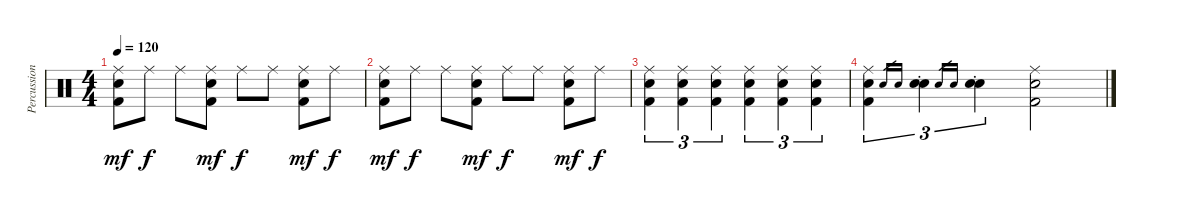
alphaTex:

\track ("Percussion" "Percussion") {instrument percussion}
\staff {score}
\articulation defaults
\ts (4 4)
\tempo 120
\clef neutral
\ks c
("Ride (middle)" "Kick (hit) 2" "Snare (hit) 2").8{dy mf} "Ride (middle)".8{dy f} "Ride (middle)".8 ("Ride (middle)" "Kick (hit) 2" "Snare (hit) 2").8{dy mf} "Ride (middle)".8{dy f} "Ride (middle)".8 ("Ride (middle)" "Kick (hit) 2" "Snare (hit) 2").8{dy mf} "Ride (middle)".8{dy f} |
("Ride (middle)" "Kick (hit) 2" "Snare (hit) 2").8{dy mf} "Ride (middle)".8{dy f} "Ride (middle)".8 ("Ride (middle)" "Kick (hit) 2" "Snare (hit) 2").8{dy mf} "Ride (middle)".8{dy f} "Ride (middle)".8 ("Ride (middle)" "Kick (hit) 2" "Snare (hit) 2").8{dy mf} "Ride (middle)".8{dy f} |
("Ride (middle)" "Snare (hit) 2" "Kick (hit) 2").4{tu (3 2)} ("Ride (middle)" "Snare (hit) 2" "Kick (hit) 2").4{tu (3 2)} ("Ride (middle)" "Snare (hit) 2" "Kick (hit) 2").4{tu (3 2)} ("Ride (middle)" "Snare (hit) 2" "Kick (hit) 2").4{tu (3 2)} ("Ride (middle)" "Snare (hit) 2" "Kick (hit) 2").4{tu (3 2)} ("Ride (middle)" "Snare (hit) 2" "Kick (hit) 2").4{tu (3 2)} |
("Ride (middle)" "Snare (hit) 2" "Kick (hit) 2").4{tu (3 2)} "Snare (hit) 2".16{gr} "Snare (hit) 2".16{gr} ("Snare (hit)" "Snare (hit) 2"{st}).4{tu (3 2)} "Snare (hit) 2".16{gr} "Snare (hit) 2".16{gr} ("Snare (hit)" "Snare (hit) 2"{st}).4{tu (3 2)} ("Ride (middle)" "Kick (hit) 2" "Snare (hit) 2").2
